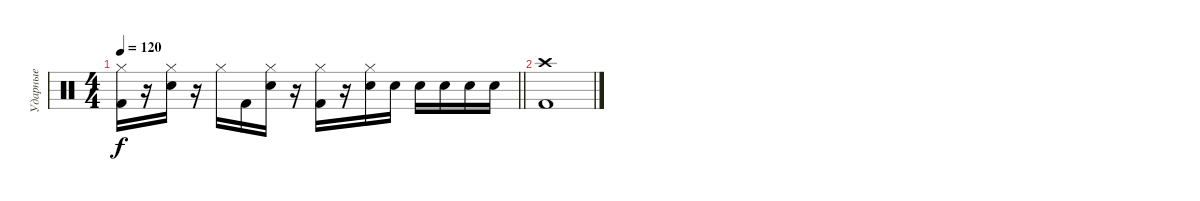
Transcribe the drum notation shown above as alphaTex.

\track ("Ударные" "Ударные") {instrument percussion}
\staff {score}
\articulation defaults
\ts (4 4)
\tempo 120
\clef neutral
\barLineRight lightlight
\ks c
("Kick (hit) 2" "Hi-Hat (closed)").16{dy f} r.16 ("Electric Snare (hit)" "Hi-Hat (closed)").16 r.16 "Hi-Hat (closed)".16 "Kick (hit) 2".16 ("Electric Snare (hit)" "Hi-Hat (closed)").16 r.16 ("Kick (hit) 2" "Hi-Hat (closed)").16 r.16 ("Electric Snare (hit)" "Hi-Hat (closed)").16 "Electric Snare (hit)".16 "Electric Snare (hit)".16 "Electric Snare (hit)".16 "Electric Snare (hit)".16 "Electric Snare (hit)".16 |
("Kick (hit) 2" "Crash high (hit)").1
